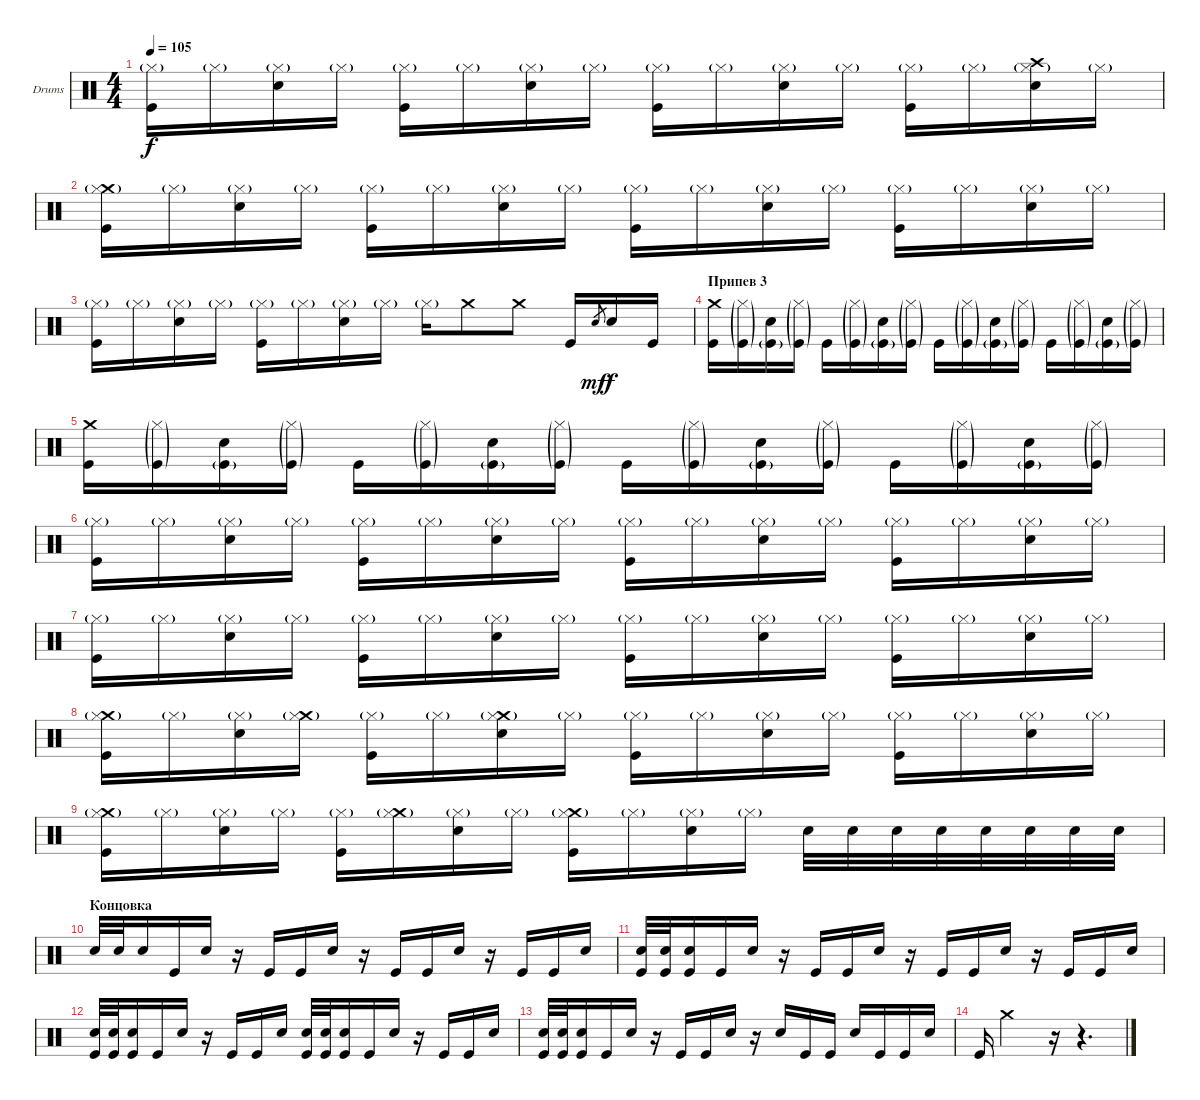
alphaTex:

\bracketExtendMode groupsimilarinstruments
\firstSystemTrackNameOrientation horizontal
\otherSystemsTrackNameOrientation horizontal
\track ("Drumkit" "Drums") {instrument percussion}
\staff {score}
\articulation defaults
\ts (4 4)
\tempo 105
\clef neutral
\ks c
("Kick (hit)" "Hi-Hat (closed)"{g}).16{dy f} "Hi-Hat (closed)"{g}.16 ("Snare (hit) 2" "Hi-Hat (closed)"{g}).16 "Hi-Hat (closed)"{g}.16 ("Kick (hit)" "Hi-Hat (closed)"{g}).16 "Hi-Hat (closed)"{g}.16 ("Snare (hit) 2" "Hi-Hat (closed)"{g}).16 "Hi-Hat (closed)"{g}.16 ("Kick (hit)" "Hi-Hat (closed)"{g}).16 "Hi-Hat (closed)"{g}.16 ("Snare (hit) 2" "Hi-Hat (closed)"{g}).16 "Hi-Hat (closed)"{g}.16 ("Kick (hit)" "Hi-Hat (closed)"{g}).16 "Hi-Hat (closed)"{g}.16 ("Snare (hit) 2" "Crash high (hit)" "Hi-Hat (closed)"{g}).16 "Hi-Hat (closed)"{g}.16 |
("Kick (hit)" "Crash medium (hit)" "Hi-Hat (closed)"{g}).16 "Hi-Hat (closed)"{g}.16 ("Snare (hit) 2" "Hi-Hat (closed)"{g}).16 "Hi-Hat (closed)"{g}.16 ("Kick (hit)" "Hi-Hat (closed)"{g}).16 "Hi-Hat (closed)"{g}.16 ("Snare (hit) 2" "Hi-Hat (closed)"{g}).16 "Hi-Hat (closed)"{g}.16 ("Kick (hit)" "Hi-Hat (closed)"{g}).16 "Hi-Hat (closed)"{g}.16 ("Snare (hit) 2" "Hi-Hat (closed)"{g}).16 "Hi-Hat (closed)"{g}.16 ("Kick (hit)" "Hi-Hat (closed)"{g}).16 "Hi-Hat (closed)"{g}.16 ("Snare (hit) 2" "Hi-Hat (closed)"{g}).16 "Hi-Hat (closed)"{g}.16 |
("Kick (hit)" "Hi-Hat (closed)"{g}).16 "Hi-Hat (closed)"{g}.16 ("Snare (hit) 2" "Hi-Hat (closed)"{g}).16 "Hi-Hat (closed)"{g}.16 ("Kick (hit)" "Hi-Hat (closed)"{g}).16 "Hi-Hat (closed)"{g}.16 ("Snare (hit) 2" "Hi-Hat (closed)"{g}).16 "Hi-Hat (closed)"{g}.16 "Hi-Hat (closed)"{g}.16 "Crash medium (hit)".8 "Crash medium (hit)".8 "Kick (hit)".16 "Snare (hit) 2".8{gr dy mf} "Snare (hit) 2".16{dy f} "Kick (hit)".16 |
\section ("" "Припев 3")
("Crash medium (hit)" "Kick (hit)").16 ("Hi-Hat (closed)"{g} "Kick (hit)"{g}).16 ("Snare (hit) 2" "Kick (hit)"{g}).16 ("Hi-Hat (closed)"{g} "Kick (hit)"{g}).16 "Kick (hit)".16 ("Hi-Hat (closed)"{g} "Kick (hit)"{g}).16 ("Snare (hit) 2" "Kick (hit)"{g}).16 ("Hi-Hat (closed)"{g} "Kick (hit)"{g}).16 "Kick (hit)".16 ("Hi-Hat (closed)"{g} "Kick (hit)"{g}).16 ("Snare (hit) 2" "Kick (hit)"{g}).16 ("Hi-Hat (closed)"{g} "Kick (hit)"{g}).16 "Kick (hit)".16 ("Hi-Hat (closed)"{g} "Kick (hit)"{g}).16 ("Snare (hit) 2" "Kick (hit)"{g}).16 ("Hi-Hat (closed)"{g} "Kick (hit)"{g}).16 |
("Crash medium (hit)" "Kick (hit)").16 ("Hi-Hat (closed)"{g} "Kick (hit)"{g}).16 ("Snare (hit) 2" "Kick (hit)"{g}).16 ("Hi-Hat (closed)"{g} "Kick (hit)"{g}).16 "Kick (hit)".16 ("Hi-Hat (closed)"{g} "Kick (hit)"{g}).16 ("Snare (hit) 2" "Kick (hit)"{g}).16 ("Hi-Hat (closed)"{g} "Kick (hit)"{g}).16 "Kick (hit)".16 ("Hi-Hat (closed)"{g} "Kick (hit)"{g}).16 ("Snare (hit) 2" "Kick (hit)"{g}).16 ("Hi-Hat (closed)"{g} "Kick (hit)"{g}).16 "Kick (hit)".16 ("Hi-Hat (closed)"{g} "Kick (hit)"{g}).16 ("Snare (hit) 2" "Kick (hit)"{g}).16 ("Hi-Hat (closed)"{g} "Kick (hit)"{g}).16 |
("Kick (hit)" "Hi-Hat (closed)"{g}).16 "Hi-Hat (closed)"{g}.16 ("Snare (hit) 2" "Hi-Hat (closed)"{g}).16 "Hi-Hat (closed)"{g}.16 ("Kick (hit)" "Hi-Hat (closed)"{g}).16 "Hi-Hat (closed)"{g}.16 ("Snare (hit) 2" "Hi-Hat (closed)"{g}).16 "Hi-Hat (closed)"{g}.16 ("Kick (hit)" "Hi-Hat (closed)"{g}).16 "Hi-Hat (closed)"{g}.16 ("Snare (hit) 2" "Hi-Hat (closed)"{g}).16 "Hi-Hat (closed)"{g}.16 ("Kick (hit)" "Hi-Hat (closed)"{g}).16 "Hi-Hat (closed)"{g}.16 ("Snare (hit) 2" "Hi-Hat (closed)"{g}).16 "Hi-Hat (closed)"{g}.16 |
("Kick (hit)" "Hi-Hat (closed)"{g}).16 "Hi-Hat (closed)"{g}.16 ("Snare (hit) 2" "Hi-Hat (closed)"{g}).16 "Hi-Hat (closed)"{g}.16 ("Kick (hit)" "Hi-Hat (closed)"{g}).16 "Hi-Hat (closed)"{g}.16 ("Snare (hit) 2" "Hi-Hat (closed)"{g}).16 "Hi-Hat (closed)"{g}.16 ("Kick (hit)" "Hi-Hat (closed)"{g}).16 "Hi-Hat (closed)"{g}.16 ("Snare (hit) 2" "Hi-Hat (closed)"{g}).16 "Hi-Hat (closed)"{g}.16 ("Kick (hit)" "Hi-Hat (closed)"{g}).16 "Hi-Hat (closed)"{g}.16 ("Snare (hit) 2" "Hi-Hat (closed)"{g}).16 "Hi-Hat (closed)"{g}.16 |
("Kick (hit)" "Crash medium (hit)" "Hi-Hat (closed)"{g}).16 "Hi-Hat (closed)"{g}.16 ("Snare (hit) 2" "Hi-Hat (closed)"{g}).16 ("Crash medium (hit)" "Hi-Hat (closed)"{g}).16 ("Kick (hit)" "Hi-Hat (closed)"{g}).16 "Hi-Hat (closed)"{g}.16 ("Snare (hit) 2" "Crash medium (hit)" "Hi-Hat (closed)"{g}).16 "Hi-Hat (closed)"{g}.16 ("Kick (hit)" "Hi-Hat (closed)"{g}).16 "Hi-Hat (closed)"{g}.16 ("Snare (hit) 2" "Hi-Hat (closed)"{g}).16 "Hi-Hat (closed)"{g}.16 ("Kick (hit)" "Hi-Hat (closed)"{g}).16 "Hi-Hat (closed)"{g}.16 ("Snare (hit) 2" "Hi-Hat (closed)"{g}).16 "Hi-Hat (closed)"{g}.16 |
("Kick (hit)" "Crash medium (hit)" "Hi-Hat (closed)"{g}).16 "Hi-Hat (closed)"{g}.16 ("Snare (hit) 2" "Hi-Hat (closed)"{g}).16 "Hi-Hat (closed)"{g}.16 ("Kick (hit)" "Hi-Hat (closed)"{g}).16 ("Crash medium (hit)" "Hi-Hat (closed)"{g}).16 ("Snare (hit) 2" "Hi-Hat (closed)"{g}).16 "Hi-Hat (closed)"{g}.16 ("Kick (hit)" "Crash medium (hit)" "Hi-Hat (closed)"{g}).16 "Hi-Hat (closed)"{g}.16 ("Snare (hit) 2" "Hi-Hat (closed)"{g}).16 "Hi-Hat (closed)"{g}.16 "Snare (hit) 2".32 "Snare (hit) 2".32 "Snare (hit) 2".32 "Snare (hit) 2".32 "Snare (hit) 2".32 "Snare (hit) 2".32 "Snare (hit) 2".32 "Snare (hit) 2".32 |
\section ("" "Концовка")
"Snare (hit) 2".32 "Snare (hit) 2".32 "Snare (hit) 2".16 "Kick (hit)".16 "Snare (hit) 2".16 r.16 "Kick (hit)".16 "Kick (hit)".16 "Snare (hit) 2".16 r.16 "Kick (hit)".16 "Kick (hit)".16 "Snare (hit) 2".16 r.16 "Kick (hit)".16 "Kick (hit)".16 "Snare (hit) 2".16 |
("Snare (hit) 2" "Kick (hit)").32 ("Snare (hit) 2" "Kick (hit)").32 ("Snare (hit) 2" "Kick (hit)").16 "Kick (hit)".16 "Snare (hit) 2".16 r.16 "Kick (hit)".16 "Kick (hit)".16 "Snare (hit) 2".16 r.16 "Kick (hit)".16 "Kick (hit)".16 "Snare (hit) 2".16 r.16 "Kick (hit)".16 "Kick (hit)".16 "Snare (hit) 2".16 |
("Snare (hit) 2" "Kick (hit)").32 ("Snare (hit) 2" "Kick (hit)").32 ("Snare (hit) 2" "Kick (hit)").16 "Kick (hit)".16 "Snare (hit) 2".16 r.16 "Kick (hit)".16 "Kick (hit)".16 "Snare (hit) 2".16 ("Snare (hit) 2" "Kick (hit)").32 ("Snare (hit) 2" "Kick (hit)").32 ("Snare (hit) 2" "Kick (hit)").16 "Kick (hit)".16 "Snare (hit) 2".16 r.16 "Kick (hit)".16 "Kick (hit)".16 "Snare (hit) 2".16 |
("Snare (hit) 2" "Kick (hit)").32 ("Snare (hit) 2" "Kick (hit)").32 ("Snare (hit) 2" "Kick (hit)").16 "Kick (hit)".16 "Snare (hit) 2".16 r.16 "Kick (hit)".16 "Kick (hit)".16 "Snare (hit) 2".16 r.16 "Snare (hit) 2".16 "Kick (hit)".16 "Kick (hit)".16 "Snare (hit) 2".16 "Kick (hit)".16 "Kick (hit)".16 "Snare (hit) 2".16 |
"Kick (hit)".16 "Crash medium (hit)".2 r.16 r.4{d}
